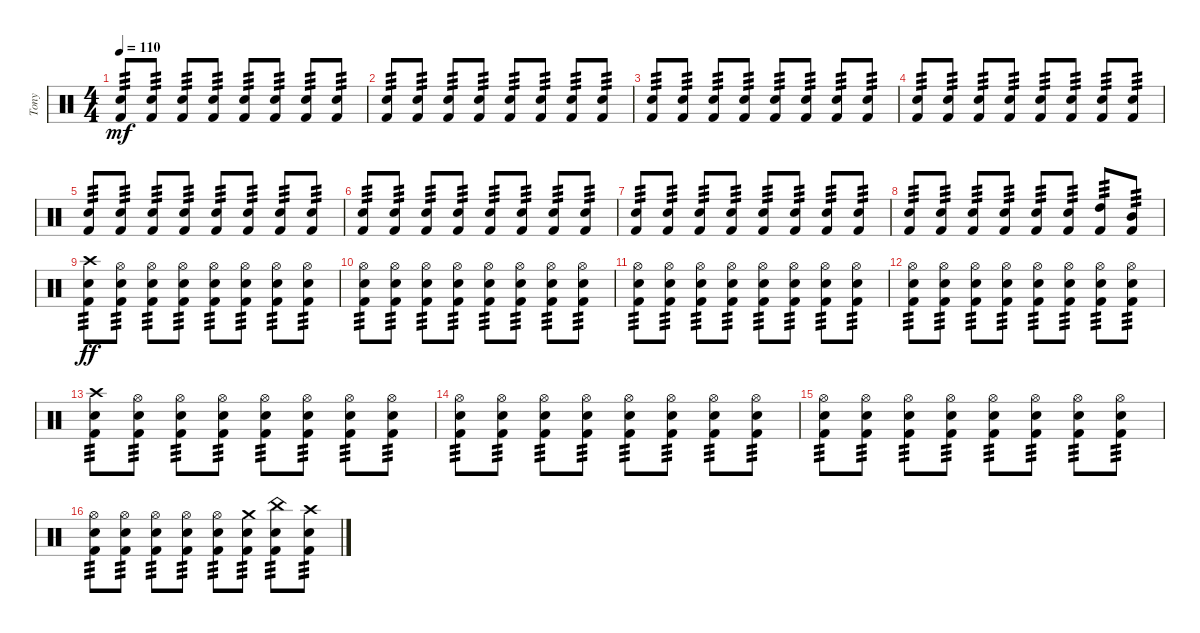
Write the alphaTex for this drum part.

\track ("Tony" "Tony") {instrument percussion}
\staff {score}
\articulation defaults
\ts (4 4)
\tempo 110
\clef neutral
\ks c
("Snare (hit) 2" "Kick (hit) 2").8{tp 3 dy mf} ("Snare (hit) 2" "Kick (hit) 2").8{tp 3} ("Snare (hit) 2" "Kick (hit) 2").8{tp 3} ("Snare (hit) 2" "Kick (hit) 2").8{tp 3} ("Snare (hit) 2" "Kick (hit) 2").8{tp 3} ("Snare (hit) 2" "Kick (hit) 2").8{tp 3} ("Snare (hit) 2" "Kick (hit) 2").8{tp 3} ("Snare (hit) 2" "Kick (hit) 2").8{tp 3} |
("Snare (hit) 2" "Kick (hit) 2").8{tp 3} ("Snare (hit) 2" "Kick (hit) 2").8{tp 3} ("Snare (hit) 2" "Kick (hit) 2").8{tp 3} ("Snare (hit) 2" "Kick (hit) 2").8{tp 3} ("Snare (hit) 2" "Kick (hit) 2").8{tp 3} ("Snare (hit) 2" "Kick (hit) 2").8{tp 3} ("Snare (hit) 2" "Kick (hit) 2").8{tp 3} ("Snare (hit) 2" "Kick (hit) 2").8{tp 3} |
("Snare (hit) 2" "Kick (hit) 2").8{tp 3} ("Snare (hit) 2" "Kick (hit) 2").8{tp 3} ("Snare (hit) 2" "Kick (hit) 2").8{tp 3} ("Snare (hit) 2" "Kick (hit) 2").8{tp 3} ("Snare (hit) 2" "Kick (hit) 2").8{tp 3} ("Snare (hit) 2" "Kick (hit) 2").8{tp 3} ("Snare (hit) 2" "Kick (hit) 2").8{tp 3} ("Snare (hit) 2" "Kick (hit) 2").8{tp 3} |
("Snare (hit) 2" "Kick (hit) 2").8{tp 3} ("Snare (hit) 2" "Kick (hit) 2").8{tp 3} ("Snare (hit) 2" "Kick (hit) 2").8{tp 3} ("Snare (hit) 2" "Kick (hit) 2").8{tp 3} ("Snare (hit) 2" "Kick (hit) 2").8{tp 3} ("Snare (hit) 2" "Kick (hit) 2").8{tp 3} ("Snare (hit) 2" "Kick (hit) 2").8{tp 3} ("Snare (hit) 2" "Kick (hit) 2").8{tp 3} |
("Snare (hit) 2" "Kick (hit) 2").8{tp 3} ("Snare (hit) 2" "Kick (hit) 2").8{tp 3} ("Snare (hit) 2" "Kick (hit) 2").8{tp 3} ("Snare (hit) 2" "Kick (hit) 2").8{tp 3} ("Snare (hit) 2" "Kick (hit) 2").8{tp 3} ("Snare (hit) 2" "Kick (hit) 2").8{tp 3} ("Snare (hit) 2" "Kick (hit) 2").8{tp 3} ("Snare (hit) 2" "Kick (hit) 2").8{tp 3} |
("Snare (hit) 2" "Kick (hit) 2").8{tp 3} ("Snare (hit) 2" "Kick (hit) 2").8{tp 3} ("Snare (hit) 2" "Kick (hit) 2").8{tp 3} ("Snare (hit) 2" "Kick (hit) 2").8{tp 3} ("Snare (hit) 2" "Kick (hit) 2").8{tp 3} ("Snare (hit) 2" "Kick (hit) 2").8{tp 3} ("Snare (hit) 2" "Kick (hit) 2").8{tp 3} ("Snare (hit) 2" "Kick (hit) 2").8{tp 3} |
("Snare (hit) 2" "Kick (hit) 2").8{tp 3} ("Snare (hit) 2" "Kick (hit) 2").8{tp 3} ("Snare (hit) 2" "Kick (hit) 2").8{tp 3} ("Snare (hit) 2" "Kick (hit) 2").8{tp 3} ("Snare (hit) 2" "Kick (hit) 2").8{tp 3} ("Snare (hit) 2" "Kick (hit) 2").8{tp 3} ("Snare (hit) 2" "Kick (hit) 2").8{tp 3} ("Snare (hit) 2" "Kick (hit) 2").8{tp 3} |
("Snare (hit) 2" "Kick (hit) 2").8{tp 3} ("Snare (hit) 2" "Kick (hit) 2").8{tp 3} ("Snare (hit) 2" "Kick (hit) 2").8{tp 3} ("Snare (hit) 2" "Kick (hit) 2").8{tp 3} ("Snare (hit) 2" "Kick (hit) 2").8{tp 3} ("Snare (hit) 2" "Kick (hit) 2").8{tp 3} ("High Tom (hit)" "Kick (hit) 2").8{tp 3} ("Mid Tom (hit)" "Kick (hit) 2").8{tp 3} |
("Crash high (hit)" "Kick (hit) 2" "Snare (hit) 2").8{tp 3 dy ff} ("Hi-Hat (open)" "Kick (hit) 2" "Snare (hit) 2").8{tp 3} ("Hi-Hat (open)" "Kick (hit) 2" "Snare (hit) 2").8{tp 3} ("Hi-Hat (open)" "Kick (hit) 2" "Snare (hit) 2").8{tp 3} ("Hi-Hat (open)" "Kick (hit) 2" "Snare (hit) 2").8{tp 3} ("Hi-Hat (open)" "Kick (hit) 2" "Snare (hit) 2").8{tp 3} ("Hi-Hat (open)" "Kick (hit) 2" "Snare (hit) 2").8{tp 3} ("Hi-Hat (open)" "Kick (hit) 2" "Snare (hit) 2").8{tp 3} |
("Hi-Hat (open)" "Kick (hit) 2" "Snare (hit) 2").8{tp 3} ("Hi-Hat (open)" "Kick (hit) 2" "Snare (hit) 2").8{tp 3} ("Hi-Hat (open)" "Kick (hit) 2" "Snare (hit) 2").8{tp 3} ("Hi-Hat (open)" "Kick (hit) 2" "Snare (hit) 2").8{tp 3} ("Hi-Hat (open)" "Kick (hit) 2" "Snare (hit) 2").8{tp 3} ("Hi-Hat (open)" "Kick (hit) 2" "Snare (hit) 2").8{tp 3} ("Hi-Hat (open)" "Kick (hit) 2" "Snare (hit) 2").8{tp 3} ("Hi-Hat (open)" "Kick (hit) 2" "Snare (hit) 2").8{tp 3} |
("Hi-Hat (open)" "Kick (hit) 2" "Snare (hit) 2").8{tp 3} ("Hi-Hat (open)" "Kick (hit) 2" "Snare (hit) 2").8{tp 3} ("Hi-Hat (open)" "Kick (hit) 2" "Snare (hit) 2").8{tp 3} ("Hi-Hat (open)" "Kick (hit) 2" "Snare (hit) 2").8{tp 3} ("Hi-Hat (open)" "Kick (hit) 2" "Snare (hit) 2").8{tp 3} ("Hi-Hat (open)" "Kick (hit) 2" "Snare (hit) 2").8{tp 3} ("Hi-Hat (open)" "Kick (hit) 2" "Snare (hit) 2").8{tp 3} ("Hi-Hat (open)" "Kick (hit) 2" "Snare (hit) 2").8{tp 3} |
("Hi-Hat (open)" "Kick (hit) 2" "Snare (hit) 2").8{tp 3} ("Hi-Hat (open)" "Kick (hit) 2" "Snare (hit) 2").8{tp 3} ("Hi-Hat (open)" "Kick (hit) 2" "Snare (hit) 2").8{tp 3} ("Hi-Hat (open)" "Kick (hit) 2" "Snare (hit) 2").8{tp 3} ("Hi-Hat (open)" "Kick (hit) 2" "Snare (hit) 2").8{tp 3} ("Hi-Hat (open)" "Kick (hit) 2" "Snare (hit) 2").8{tp 3} ("Hi-Hat (open)" "Kick (hit) 2" "Snare (hit) 2").8{tp 3} ("Hi-Hat (open)" "Kick (hit) 2" "Snare (hit) 2").8{tp 3} |
("Crash high (hit)" "Kick (hit) 2" "Snare (hit) 2").8{tp 3} ("Hi-Hat (open)" "Kick (hit) 2" "Snare (hit) 2").8{tp 3} ("Hi-Hat (open)" "Kick (hit) 2" "Snare (hit) 2").8{tp 3} ("Hi-Hat (open)" "Kick (hit) 2" "Snare (hit) 2").8{tp 3} ("Hi-Hat (open)" "Kick (hit) 2" "Snare (hit) 2").8{tp 3} ("Hi-Hat (open)" "Kick (hit) 2" "Snare (hit) 2").8{tp 3} ("Hi-Hat (open)" "Kick (hit) 2" "Snare (hit) 2").8{tp 3} ("Hi-Hat (open)" "Kick (hit) 2" "Snare (hit) 2").8{tp 3} |
("Hi-Hat (open)" "Kick (hit) 2" "Snare (hit) 2").8{tp 3} ("Hi-Hat (open)" "Kick (hit) 2" "Snare (hit) 2").8{tp 3} ("Hi-Hat (open)" "Kick (hit) 2" "Snare (hit) 2").8{tp 3} ("Hi-Hat (open)" "Kick (hit) 2" "Snare (hit) 2").8{tp 3} ("Hi-Hat (open)" "Kick (hit) 2" "Snare (hit) 2").8{tp 3} ("Hi-Hat (open)" "Kick (hit) 2" "Snare (hit) 2").8{tp 3} ("Hi-Hat (open)" "Kick (hit) 2" "Snare (hit) 2").8{tp 3} ("Hi-Hat (open)" "Kick (hit) 2" "Snare (hit) 2").8{tp 3} |
("Hi-Hat (open)" "Kick (hit) 2" "Snare (hit) 2").8{tp 3} ("Hi-Hat (open)" "Kick (hit) 2" "Snare (hit) 2").8{tp 3} ("Hi-Hat (open)" "Kick (hit) 2" "Snare (hit) 2").8{tp 3} ("Hi-Hat (open)" "Kick (hit) 2" "Snare (hit) 2").8{tp 3} ("Hi-Hat (open)" "Kick (hit) 2" "Snare (hit) 2").8{tp 3} ("Hi-Hat (open)" "Kick (hit) 2" "Snare (hit) 2").8{tp 3} ("Hi-Hat (open)" "Kick (hit) 2" "Snare (hit) 2").8{tp 3} ("Hi-Hat (open)" "Kick (hit) 2" "Snare (hit) 2").8{tp 3} |
("Hi-Hat (open)" "Kick (hit) 2" "Snare (hit) 2").8{tp 3} ("Hi-Hat (open)" "Kick (hit) 2" "Snare (hit) 2").8{tp 3} ("Hi-Hat (open)" "Kick (hit) 2" "Snare (hit) 2").8{tp 3} ("Hi-Hat (open)" "Kick (hit) 2" "Snare (hit) 2").8{tp 3} ("Hi-Hat (open)" "Kick (hit) 2" "Snare (hit) 2").8{tp 3} ("Crash medium (hit)" "Kick (hit) 2" "Snare (hit) 2").8{tp 3} ("China (hit)" "Kick (hit) 2" "Snare (hit) 2").8{tp 3} ("Crash high (hit)" "Kick (hit) 2" "Snare (hit) 2").8{tp 3}
